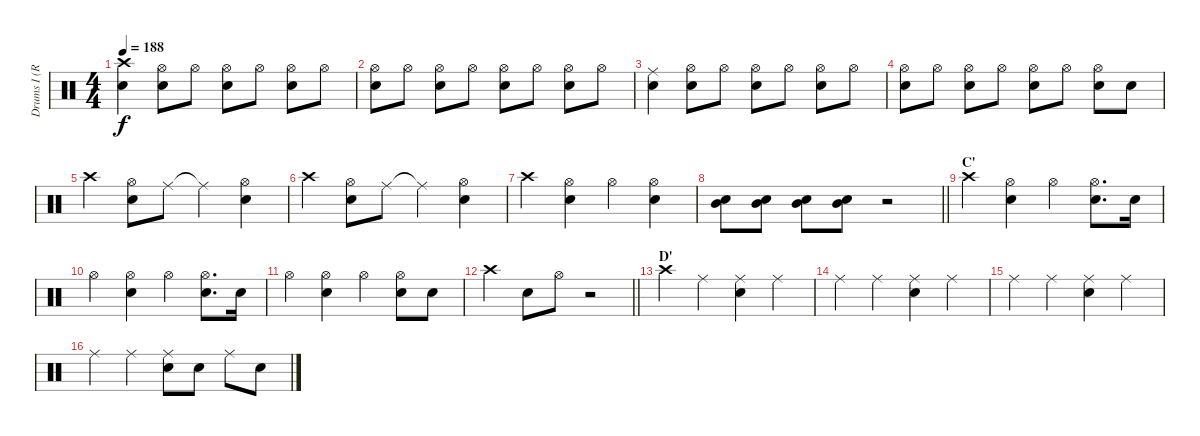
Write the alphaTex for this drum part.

\track ("Drums I (Ruka)" "Drums I (R") {instrument percussion}
\staff {score}
\articulation defaults
\ts (4 4)
\tempo 188
\clef neutral
\ks c
("Crash high (hit)" "Snare (hit) 2").4{dy f} ("Hi-Hat (open)" "Snare (hit) 2").8 "Hi-Hat (open)".8 ("Hi-Hat (open)" "Snare (hit) 2").8 "Hi-Hat (open)".8 ("Hi-Hat (open)" "Snare (hit) 2").8 "Hi-Hat (open)".8 |
("Hi-Hat (open)" "Snare (hit) 2").8 "Hi-Hat (open)".8 ("Hi-Hat (open)" "Snare (hit) 2").8 "Hi-Hat (open)".8 ("Hi-Hat (open)" "Snare (hit) 2").8 "Hi-Hat (open)".8 ("Hi-Hat (open)" "Snare (hit) 2").8 "Hi-Hat (open)".8 |
("Ride (middle)" "Snare (hit) 2").4 ("Hi-Hat (open)" "Snare (hit) 2").8 "Hi-Hat (open)".8 ("Hi-Hat (open)" "Snare (hit) 2").8 "Hi-Hat (open)".8 ("Hi-Hat (open)" "Snare (hit) 2").8 "Hi-Hat (open)".8 |
("Hi-Hat (open)" "Snare (hit) 2").8 "Hi-Hat (open)".8 ("Hi-Hat (open)" "Snare (hit) 2").8 "Hi-Hat (open)".8 ("Hi-Hat (open)" "Snare (hit) 2").8 "Hi-Hat (open)".8 ("Hi-Hat (open)" "Snare (hit) 2").8 "Snare (hit) 2".8 |
"Crash high (hit)".4 ("Hi-Hat (open)" "Snare (hit) 2").8 "Ride (middle)".8 "Ride (middle)"{t}.4 ("Hi-Hat (open)" "Snare (hit) 2").4 |
"Crash high (hit)".4 ("Hi-Hat (open)" "Snare (hit) 2").8 "Ride (middle)".8 "Ride (middle)"{t}.4 ("Hi-Hat (open)" "Snare (hit) 2").4 |
"Crash high (hit)".4 ("Hi-Hat (open)" "Snare (hit) 2").4 "Hi-Hat (open)".4 ("Hi-Hat (open)" "Snare (hit) 2").4 |
\barLineRight lightlight
("Mid Tom (hit)" "Snare (hit) 2").8 ("Mid Tom (hit)" "Snare (hit) 2").8 ("Mid Tom (hit)" "Snare (hit) 2").8 ("Mid Tom (hit)" "Snare (hit) 2").8 r.2 |
\section ("" "C'")
"Crash high (hit)".4 ("Hi-Hat (open)" "Snare (hit) 2").4 "Hi-Hat (open)".4 ("Hi-Hat (open)" "Snare (hit) 2").8{d} "Snare (hit) 2".16 |
"Hi-Hat (open)".4 ("Hi-Hat (open)" "Snare (hit) 2").4 "Hi-Hat (open)".4 ("Hi-Hat (open)" "Snare (hit) 2").8{d} "Snare (hit) 2".16 |
"Hi-Hat (open)".4 ("Hi-Hat (open)" "Snare (hit) 2").4 "Hi-Hat (open)".4 ("Hi-Hat (open)" "Snare (hit) 2").8 "Snare (hit) 2".8 |
\barLineRight lightlight "Crash high (hit)".4 "Snare (hit) 2".8 "Hi-Hat (open)".8
r.2 |
\section ("" "D'")
"Crash high (hit)".4 "Ride (middle)".4 ("Ride (middle)" "Snare (hit) 2").4 "Ride (middle)".4 |
"Ride (middle)".4 "Ride (middle)".4 ("Ride (middle)" "Snare (hit) 2").4 "Ride (middle)".4 |
"Ride (middle)".4 "Ride (middle)".4 ("Ride (middle)" "Snare (hit) 2").4 "Ride (middle)".4 |
"Ride (middle)".4 "Ride (middle)".4 ("Ride (middle)" "Snare (hit) 2").8 "Snare (hit) 2".8 "Ride (middle)".8 "Snare (hit) 2".8
